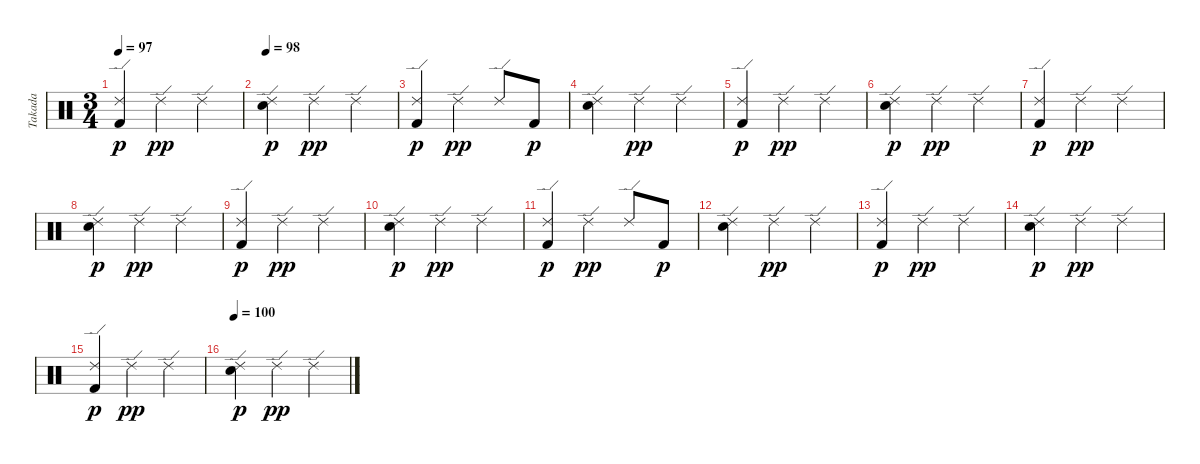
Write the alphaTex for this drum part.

\track ("Takada" "Takada") {instrument percussion}
\staff {score}
\articulation defaults
\ts (3 4)
\tempo 97
\clef neutral
\ks c
("Ride (edge) 2" "Kick (hit) 2").4{dy p} "Ride (edge) 2".4{dy pp} "Ride (edge) 2".4 |
\tempo 98
("Ride (edge) 2" "Electric Snare (hit)").4{dy p} "Ride (edge) 2".4{dy pp} "Ride (edge) 2".4 |
("Ride (edge) 2" "Kick (hit) 2").4{dy p} "Ride (edge) 2".4{dy pp} "Ride (edge) 2".8 "Kick (hit) 2".8{dy p} |
("Ride (edge) 2" "Electric Snare (hit)").4 "Ride (edge) 2".4{dy pp} "Ride (edge) 2".4 |
("Ride (edge) 2" "Kick (hit) 2").4{dy p} "Ride (edge) 2".4{dy pp} "Ride (edge) 2".4 |
("Ride (edge) 2" "Electric Snare (hit)").4{dy p} "Ride (edge) 2".4{dy pp} "Ride (edge) 2".4 |
("Ride (edge) 2" "Kick (hit) 2").4{dy p} "Ride (edge) 2".4{dy pp} "Ride (edge) 2".4 |
("Ride (edge) 2" "Electric Snare (hit)").4{dy p} "Ride (edge) 2".4{dy pp} "Ride (edge) 2".4 |
("Ride (edge) 2" "Kick (hit) 2").4{dy p} "Ride (edge) 2".4{dy pp} "Ride (edge) 2".4 |
("Ride (edge) 2" "Electric Snare (hit)").4{dy p} "Ride (edge) 2".4{dy pp} "Ride (edge) 2".4 |
("Ride (edge) 2" "Kick (hit) 2").4{dy p} "Ride (edge) 2".4{dy pp} "Ride (edge) 2".8 "Kick (hit) 2".8{dy p} |
("Ride (edge) 2" "Electric Snare (hit)").4 "Ride (edge) 2".4{dy pp} "Ride (edge) 2".4 |
("Ride (edge) 2" "Kick (hit) 2").4{dy p} "Ride (edge) 2".4{dy pp} "Ride (edge) 2".4 |
("Ride (edge) 2" "Electric Snare (hit)").4{dy p} "Ride (edge) 2".4{dy pp} "Ride (edge) 2".4 |
("Ride (edge) 2" "Kick (hit) 2").4{dy p} "Ride (edge) 2".4{dy pp} "Ride (edge) 2".4 |
\tempo 100
("Ride (edge) 2" "Electric Snare (hit)").4{dy p} "Ride (edge) 2".4{dy pp} "Ride (edge) 2".4
